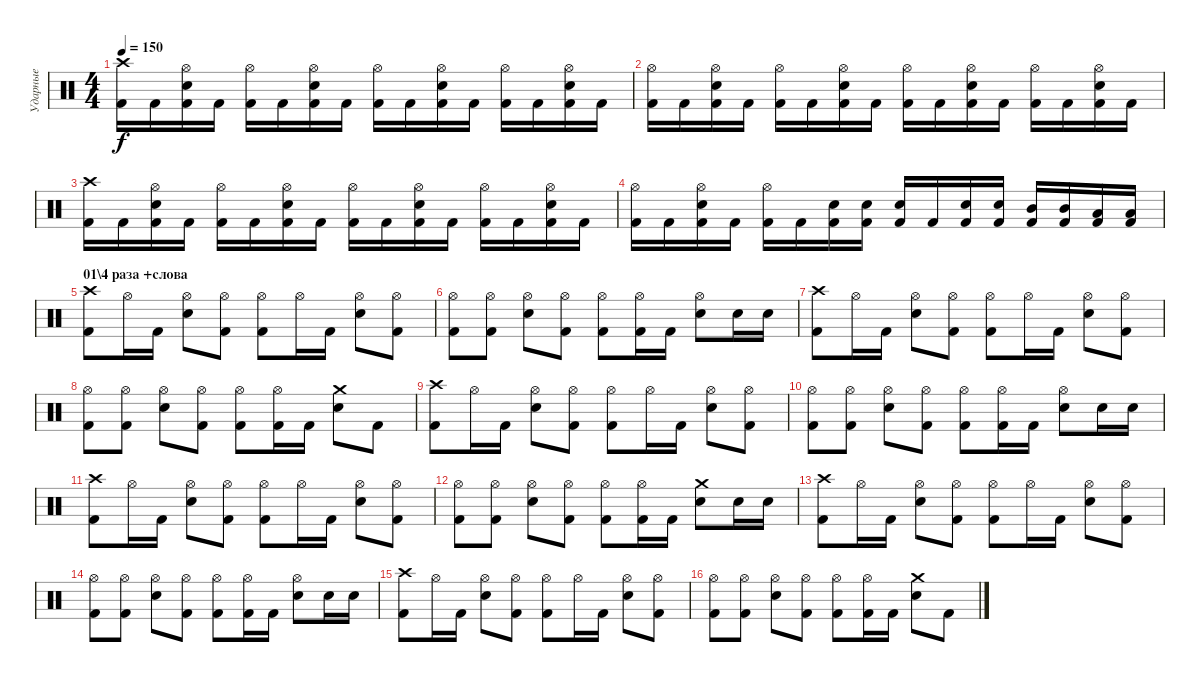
\track ("Ударные" "Ударные") {instrument percussion}
\staff {score}
\articulation defaults
\ts (4 4)
\tempo 150
\clef neutral
\ks c
("Crash high (hit)" "Kick (hit) 2").16{dy f} "Kick (hit) 2".16 ("Hi-Hat (open)" "Electric Snare (hit)" "Kick (hit) 2").16 "Kick (hit) 2".16 ("Hi-Hat (open)" "Kick (hit) 2").16 "Kick (hit) 2".16 ("Hi-Hat (open)" "Electric Snare (hit)" "Kick (hit) 2").16 "Kick (hit) 2".16 ("Hi-Hat (open)" "Kick (hit) 2").16 "Kick (hit) 2".16 ("Hi-Hat (open)" "Electric Snare (hit)" "Kick (hit) 2").16 "Kick (hit) 2".16 ("Hi-Hat (open)" "Kick (hit) 2").16 "Kick (hit) 2".16 ("Hi-Hat (open)" "Electric Snare (hit)" "Kick (hit) 2").16 "Kick (hit) 2".16 |
("Hi-Hat (open)" "Kick (hit) 2").16 "Kick (hit) 2".16 ("Hi-Hat (open)" "Electric Snare (hit)" "Kick (hit) 2").16 "Kick (hit) 2".16 ("Hi-Hat (open)" "Kick (hit) 2").16 "Kick (hit) 2".16 ("Hi-Hat (open)" "Electric Snare (hit)" "Kick (hit) 2").16 "Kick (hit) 2".16 ("Hi-Hat (open)" "Kick (hit) 2").16 "Kick (hit) 2".16 ("Hi-Hat (open)" "Electric Snare (hit)" "Kick (hit) 2").16 "Kick (hit) 2".16 ("Hi-Hat (open)" "Kick (hit) 2").16 "Kick (hit) 2".16 ("Hi-Hat (open)" "Electric Snare (hit)" "Kick (hit) 2").16 "Kick (hit) 2".16 |
("Crash high (hit)" "Kick (hit) 2").16 "Kick (hit) 2".16 ("Hi-Hat (open)" "Electric Snare (hit)" "Kick (hit) 2").16 "Kick (hit) 2".16 ("Hi-Hat (open)" "Kick (hit) 2").16 "Kick (hit) 2".16 ("Hi-Hat (open)" "Electric Snare (hit)" "Kick (hit) 2").16 "Kick (hit) 2".16 ("Hi-Hat (open)" "Kick (hit) 2").16 "Kick (hit) 2".16 ("Hi-Hat (open)" "Electric Snare (hit)" "Kick (hit) 2").16 "Kick (hit) 2".16 ("Hi-Hat (open)" "Kick (hit) 2").16 "Kick (hit) 2".16 ("Hi-Hat (open)" "Electric Snare (hit)" "Kick (hit) 2").16 "Kick (hit) 2".16 |
("Hi-Hat (open)" "Kick (hit) 2").16 "Kick (hit) 2".16 ("Hi-Hat (open)" "Electric Snare (hit)" "Kick (hit) 2").16 "Kick (hit) 2".16 ("Hi-Hat (open)" "Kick (hit) 2").16 "Kick (hit) 2".16 ("Electric Snare (hit)" "Kick (hit) 2").16 ("Electric Snare (hit)" "Kick (hit) 2").16 ("Electric Snare (hit)" "Kick (hit) 2").16 "Kick (hit) 2".16 ("Electric Snare (hit)" "Kick (hit) 2").16 ("Electric Snare (hit)" "Kick (hit) 2").16 ("Mid Tom (hit)" "Kick (hit) 2").16 ("Mid Tom (hit)" "Kick (hit) 2").16 ("Low Tom (hit)" "Kick (hit) 2").16 ("Low Tom (hit)" "Kick (hit) 2").16 |
\section ("" "01\\4 раза +слова")
("Crash high (hit)" "Kick (hit) 2").8 "Hi-Hat (open)".16 "Kick (hit) 2".16 ("Hi-Hat (open)" "Electric Snare (hit)").8 ("Hi-Hat (open)" "Kick (hit) 2").8 ("Hi-Hat (open)" "Kick (hit) 2").8 "Hi-Hat (open)".16 "Kick (hit) 2".16 ("Hi-Hat (open)" "Electric Snare (hit)").8 ("Hi-Hat (open)" "Kick (hit) 2").8 |
("Hi-Hat (open)" "Kick (hit) 2").8 ("Hi-Hat (open)" "Kick (hit) 2").8 ("Hi-Hat (open)" "Electric Snare (hit)").8 ("Hi-Hat (open)" "Kick (hit) 2").8 ("Hi-Hat (open)" "Kick (hit) 2").8 ("Hi-Hat (open)" "Kick (hit) 2").16 "Kick (hit) 2".16 ("Hi-Hat (open)" "Electric Snare (hit)").8 "Electric Snare (hit)".16 "Electric Snare (hit)".16 |
("Crash high (hit)" "Kick (hit) 2").8 "Hi-Hat (open)".16 "Kick (hit) 2".16 ("Hi-Hat (open)" "Electric Snare (hit)").8 ("Hi-Hat (open)" "Kick (hit) 2").8 ("Hi-Hat (open)" "Kick (hit) 2").8 "Hi-Hat (open)".16 "Kick (hit) 2".16 ("Hi-Hat (open)" "Electric Snare (hit)").8 ("Hi-Hat (open)" "Kick (hit) 2").8 |
("Hi-Hat (open)" "Kick (hit) 2").8 ("Hi-Hat (open)" "Kick (hit) 2").8 ("Hi-Hat (open)" "Electric Snare (hit)").8 ("Hi-Hat (open)" "Kick (hit) 2").8 ("Hi-Hat (open)" "Kick (hit) 2").8 ("Hi-Hat (open)" "Kick (hit) 2").16 "Kick (hit) 2".16 ("Crash medium (hit)" "Electric Snare (hit)").8 "Kick (hit) 2".8 |
("Crash high (hit)" "Kick (hit) 2").8 "Hi-Hat (open)".16 "Kick (hit) 2".16 ("Hi-Hat (open)" "Electric Snare (hit)").8 ("Hi-Hat (open)" "Kick (hit) 2").8 ("Hi-Hat (open)" "Kick (hit) 2").8 "Hi-Hat (open)".16 "Kick (hit) 2".16 ("Hi-Hat (open)" "Electric Snare (hit)").8 ("Hi-Hat (open)" "Kick (hit) 2").8 |
("Hi-Hat (open)" "Kick (hit) 2").8 ("Hi-Hat (open)" "Kick (hit) 2").8 ("Hi-Hat (open)" "Electric Snare (hit)").8 ("Hi-Hat (open)" "Kick (hit) 2").8 ("Hi-Hat (open)" "Kick (hit) 2").8 ("Hi-Hat (open)" "Kick (hit) 2").16 "Kick (hit) 2".16 ("Hi-Hat (open)" "Electric Snare (hit)").8 "Electric Snare (hit)".16 "Electric Snare (hit)".16 |
("Crash high (hit)" "Kick (hit) 2").8 "Hi-Hat (open)".16 "Kick (hit) 2".16 ("Hi-Hat (open)" "Electric Snare (hit)").8 ("Hi-Hat (open)" "Kick (hit) 2").8 ("Hi-Hat (open)" "Kick (hit) 2").8 "Hi-Hat (open)".16 "Kick (hit) 2".16 ("Hi-Hat (open)" "Electric Snare (hit)").8 ("Hi-Hat (open)" "Kick (hit) 2").8 |
("Hi-Hat (open)" "Kick (hit) 2").8 ("Hi-Hat (open)" "Kick (hit) 2").8 ("Hi-Hat (open)" "Electric Snare (hit)").8 ("Hi-Hat (open)" "Kick (hit) 2").8 ("Hi-Hat (open)" "Kick (hit) 2").8 ("Hi-Hat (open)" "Kick (hit) 2").16 "Kick (hit) 2".16 ("Crash medium (hit)" "Electric Snare (hit)").8 "Electric Snare (hit)".16 "Electric Snare (hit)".16 |
("Crash high (hit)" "Kick (hit) 2").8 "Hi-Hat (open)".16 "Kick (hit) 2".16 ("Hi-Hat (open)" "Electric Snare (hit)").8 ("Hi-Hat (open)" "Kick (hit) 2").8 ("Hi-Hat (open)" "Kick (hit) 2").8 "Hi-Hat (open)".16 "Kick (hit) 2".16 ("Hi-Hat (open)" "Electric Snare (hit)").8 ("Hi-Hat (open)" "Kick (hit) 2").8 |
("Hi-Hat (open)" "Kick (hit) 2").8 ("Hi-Hat (open)" "Kick (hit) 2").8 ("Hi-Hat (open)" "Electric Snare (hit)").8 ("Hi-Hat (open)" "Kick (hit) 2").8 ("Hi-Hat (open)" "Kick (hit) 2").8 ("Hi-Hat (open)" "Kick (hit) 2").16 "Kick (hit) 2".16 ("Hi-Hat (open)" "Electric Snare (hit)").8 "Electric Snare (hit)".16 "Electric Snare (hit)".16 |
("Crash high (hit)" "Kick (hit) 2").8 "Hi-Hat (open)".16 "Kick (hit) 2".16 ("Hi-Hat (open)" "Electric Snare (hit)").8 ("Hi-Hat (open)" "Kick (hit) 2").8 ("Hi-Hat (open)" "Kick (hit) 2").8 "Hi-Hat (open)".16 "Kick (hit) 2".16 ("Hi-Hat (open)" "Electric Snare (hit)").8 ("Hi-Hat (open)" "Kick (hit) 2").8 |
("Hi-Hat (open)" "Kick (hit) 2").8 ("Hi-Hat (open)" "Kick (hit) 2").8 ("Hi-Hat (open)" "Electric Snare (hit)").8 ("Hi-Hat (open)" "Kick (hit) 2").8 ("Hi-Hat (open)" "Kick (hit) 2").8 ("Hi-Hat (open)" "Kick (hit) 2").16 "Kick (hit) 2".16 ("Crash medium (hit)" "Electric Snare (hit)").8 "Kick (hit) 2".8
